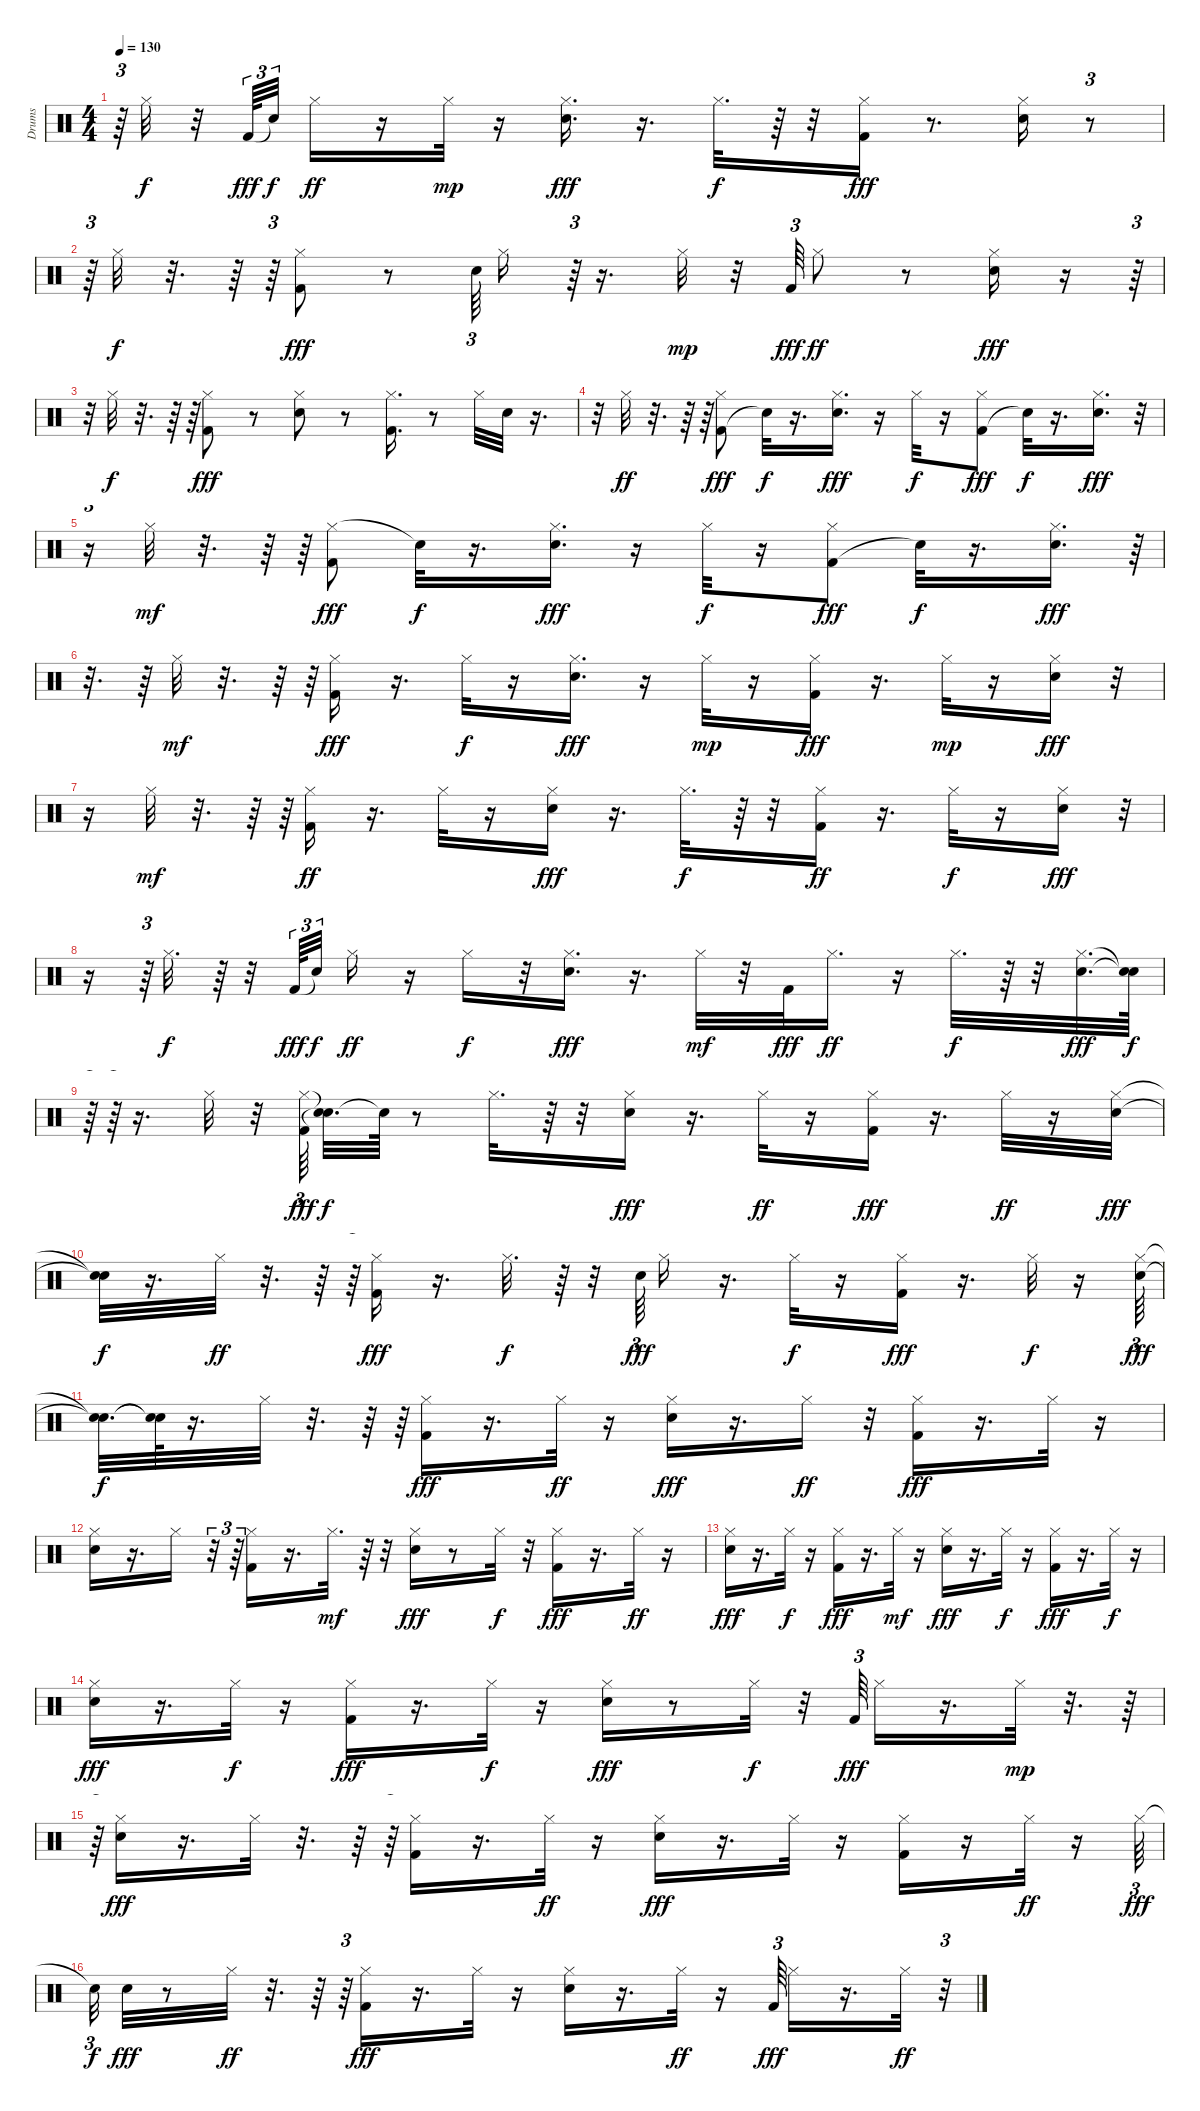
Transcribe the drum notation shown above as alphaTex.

\track ("Drums" "Drums") {instrument percussion}
\staff {score}
\articulation defaults
\ts (4 4)
\tempo 130
\clef neutral
\ks c
r.64{tu (3 2) dy fff} "Hi-Hat (closed)".32{dy f} r.32 "Kick (hit) 2".64{tu (3 2) dy fff} "Snare (hit)"{t}.32{tu (3 2) dy f beam splitsecondary} "Hi-Hat (closed)".16{dy ff} r.16 "Hi-Hat (closed)".32{dy mp} r.16 ("Electric Snare (hit)" "Hi-Hat (closed)").16{d dy fff} r.16{d} "Hi-Hat (closed)".32{d dy f} r.64 r.32 ("Kick (hit) 2" "Hi-Hat (closed)").16{dy fff} r.8{d} ("Hi-Hat (closed)" "Electric Snare (hit)").16 r.8{tu (3 2)} |
r.64{tu (3 2)} "Hi-Hat (closed)".32{dy f} r.32{d} r.64 r.64{tu (3 2)} ("Kick (hit) 2" "Hi-Hat (closed)").8{dy fff} r.8 "Electric Snare (hit)".64{tu (3 2)} "Hi-Hat (closed)".16 r.64{tu (3 2)} r.16{d} "Hi-Hat (closed)".32{dy mp} r.32 "Kick (hit) 2".64{tu (3 2) dy fff} "Hi-Hat (closed)".8{dy ff} r.8 ("Electric Snare (hit)" "Hi-Hat (closed)").16{dy fff} r.16 r.64{tu (3 2)} |
r.32{tu (3 2)} "Hi-Hat (closed)".32{dy f} r.32{d} r.64 r.64{tu (3 2)} ("Kick (hit) 2" "Hi-Hat (closed)").8{dy fff} r.8 ("Electric Snare (hit)" "Hi-Hat (closed)").8 r.8 ("Kick (hit) 2" "Hi-Hat (closed)").16{d} r.8 "Hi-Hat (closed)".32 "Electric Snare (hit)".32 r.16{d} |
r.32 "Hi-Hat (closed)".32{dy ff} r.32{d} r.64 r.64{tu (3 2)} ("Kick (hit) 2" "Hi-Hat (closed)").8{dy fff} "Snare (hit)"{t}.32{dy f} r.16{d} ("Hi-Hat (closed)" "Electric Snare (hit)").16{d dy fff} r.16 "Hi-Hat (closed)".32{dy f} r.16 ("Kick (hit) 2" "Hi-Hat (closed)").8{dy fff} "Snare (hit)"{t}.32{dy f} r.16{d} ("Electric Snare (hit)" "Hi-Hat (closed)").16{d dy fff} r.32{tu (3 2)} |
r.16{tu (3 2)} "Hi-Hat (closed)".32{dy mf} r.32{d} r.64 r.64{tu (3 2)} ("Hi-Hat (closed)" "Kick (hit) 2").8{dy fff} "Snare (hit)"{t}.32{dy f} r.16{d} ("Hi-Hat (closed)" "Electric Snare (hit)").16{d dy fff} r.16 "Hi-Hat (closed)".32{dy f} r.16 ("Kick (hit) 2" "Hi-Hat (closed)").8{dy fff} "Snare (hit)"{t}.32{dy f} r.16{d} ("Electric Snare (hit)" "Hi-Hat (closed)").16{d dy fff} r.64{tu (3 2)} |
r.32{d} r.64 "Hi-Hat (closed)".32{dy mf} r.32{d} r.64 r.64{tu (3 2)} ("Kick (hit) 2" "Hi-Hat (closed)").16{dy fff} r.16{d} "Hi-Hat (closed)".32{dy f} r.16 ("Hi-Hat (closed)" "Electric Snare (hit)").16{d dy fff} r.16 "Hi-Hat (closed)".32{dy mp} r.16 ("Kick (hit) 2" "Hi-Hat (closed)").16{dy fff} r.16{d} "Hi-Hat (closed)".32{dy mp} r.16 ("Electric Snare (hit)" "Hi-Hat (closed)").16{dy fff} r.32 |
r.16 "Hi-Hat (closed)".32{dy mf} r.32{d} r.64 r.64{tu (3 2)} ("Kick (hit) 2" "Hi-Hat (closed)").16{dy ff} r.16{d} "Hi-Hat (closed)".32 r.16 ("Electric Snare (hit)" "Hi-Hat (closed)").16{dy fff} r.16{d} "Hi-Hat (closed)".32{d dy f} r.64 r.32 ("Kick (hit) 2" "Hi-Hat (closed)").16{dy ff} r.16{d} "Hi-Hat (closed)".32{dy f} r.16 ("Electric Snare (hit)" "Hi-Hat (closed)").16{dy fff} r.32{tu (3 2)} |
r.16 r.64{tu (3 2)} "Hi-Hat (closed)".32{d dy f} r.64 r.32 "Kick (hit) 2".64{tu (3 2) dy fff} "Snare (hit)"{t}.32{tu (3 2) dy f beam splitsecondary} "Hi-Hat (closed)".16{dy ff} r.16 "Hi-Hat (closed)".16{dy f} r.32 ("Hi-Hat (closed)" "Electric Snare (hit)").16{d dy fff} r.16{d} "Hi-Hat (closed)".32{dy mf} r.32 "Kick (hit) 2".32{dy fff} "Hi-Hat (closed)".16{d dy ff} r.16 "Hi-Hat (closed)".32{d dy f} r.64 r.32 ("Electric Snare (hit)" "Hi-Hat (closed)").32{d dy fff} ("Snare (hit)"{t} "Snare (hit)"{t}).64{dy f} |
r.64{tu (3 2)} r.64{tu (3 2)} r.16{d} "Hi-Hat (closed)".32 r.32 ("Kick (hit) 2" "Hi-Hat (closed)").64{tu (3 2) dy fff beam splitsecondary} ("Snare (hit)"{t} "Snare (hit)"{t}).32{d dy f} "Snare (hit)"{t}.64 r.8 "Hi-Hat (closed)".32{d} r.64 r.32 ("Electric Snare (hit)" "Hi-Hat (closed)").16{dy fff} r.16{d} "Hi-Hat (closed)".32{dy ff} r.16 ("Kick (hit) 2" "Hi-Hat (closed)").16{dy fff} r.16{d} "Hi-Hat (closed)".32{dy ff} r.16 ("Electric Snare (hit)" "Hi-Hat (closed)").32{dy fff} |
("Snare (hit)"{t} "Snare (hit)"{t}).32{dy f} r.16{d} "Hi-Hat (closed)".32{dy ff} r.32{d} r.64 r.64{tu (3 2)} ("Kick (hit) 2" "Hi-Hat (closed)").16{dy fff} r.16{d} "Hi-Hat (closed)".32{d dy f} r.64 r.32 "Electric Snare (hit)".64{tu (3 2) dy fff} "Hi-Hat (closed)".16 r.16{d} "Hi-Hat (closed)".32{dy f} r.16 ("Kick (hit) 2" "Hi-Hat (closed)").16{dy fff} r.16{d} "Hi-Hat (closed)".32{dy f} r.16 ("Electric Snare (hit)" "Hi-Hat (closed)").64{tu (3 2) dy fff} |
("Snare (hit)"{t} "Snare (hit)"{t}).32{d dy f} ("Snare (hit)"{t} "Snare (hit)"{t}).64 r.16{d} "Hi-Hat (closed)".32 r.32{d} r.64 r.64{tu (3 2)} ("Kick (hit) 2" "Hi-Hat (closed)").16{dy fff} r.16{d} "Hi-Hat (closed)".32{dy ff} r.16 ("Hi-Hat (closed)" "Electric Snare (hit)").16{dy fff} r.16{d} "Hi-Hat (closed)".16{dy ff} r.32 ("Kick (hit) 2" "Hi-Hat (closed)").16{dy fff} r.16{d} "Hi-Hat (closed)".32 r.16 |
("Electric Snare (hit)" "Hi-Hat (closed)").16 r.16{d} "Hi-Hat (closed)".16 r.32{tu (3 2)} r.64{tu (3 2)} ("Kick (hit) 2" "Hi-Hat (closed)").16 r.16{d} "Hi-Hat (closed)".32{d dy mf} r.64 r.32 ("Electric Snare (hit)" "Hi-Hat (closed)").16{dy fff} r.8 "Hi-Hat (closed)".32{dy f} r.32 ("Kick (hit) 2" "Hi-Hat (closed)").16{dy fff} r.16{d} "Hi-Hat (closed)".32{dy ff} r.16 |
("Electric Snare (hit)" "Hi-Hat (closed)").16{dy fff} r.16{d} "Hi-Hat (closed)".32{dy f} r.16 ("Kick (hit) 2" "Hi-Hat (closed)").16{dy fff} r.16{d} "Hi-Hat (closed)".32{dy mf} r.16 ("Electric Snare (hit)" "Hi-Hat (closed)").16{dy fff} r.16{d} "Hi-Hat (closed)".32{dy f} r.16 ("Kick (hit) 2" "Hi-Hat (closed)").16{dy fff} r.16{d} "Hi-Hat (closed)".32{dy f} r.16 |
("Electric Snare (hit)" "Hi-Hat (closed)").16{dy fff} r.16{d} "Hi-Hat (closed)".32{dy f} r.16 ("Kick (hit) 2" "Hi-Hat (closed)").16{dy fff} r.16{d} "Hi-Hat (closed)".32{dy f} r.16 ("Electric Snare (hit)" "Hi-Hat (closed)").16{dy fff} r.8 "Hi-Hat (closed)".32{dy f} r.32 "Kick (hit) 2".64{tu (3 2) dy fff} "Hi-Hat (closed)".16 r.16{d} "Hi-Hat (closed)".32{dy mp} r.32{d} r.64 |
r.64{tu (3 2)} ("Electric Snare (hit)" "Hi-Hat (closed)").16{dy fff} r.16{d} "Hi-Hat (closed)".32 r.32{d} r.64 r.64{tu (3 2)} ("Kick (hit) 2" "Hi-Hat (closed)").16 r.16{d} "Hi-Hat (closed)".32{dy ff} r.16 ("Electric Snare (hit)" "Hi-Hat (closed)").16{dy fff} r.16{d} "Hi-Hat (closed)".32 r.16 ("Kick (hit) 2" "Hi-Hat (closed)").16 r.16 "Hi-Hat (closed)".32{dy ff} r.16 "Hi-Hat (closed)".64{tu (3 2) dy fff} |
"Snare (hit)"{t}.32{tu (3 2) dy f} "Electric Snare (hit)".32{dy fff} r.8 "Hi-Hat (closed)".32{dy ff} r.32{d} r.64 r.64{tu (3 2)} ("Kick (hit) 2" "Hi-Hat (closed)").16{dy fff} r.16{d} "Hi-Hat (closed)".32 r.16 ("Electric Snare (hit)" "Hi-Hat (closed)").16 r.16{d} "Hi-Hat (closed)".32{dy ff} r.16 "Kick (hit) 2".64{tu (3 2) dy fff} "Hi-Hat (closed)".16 r.16{d} "Hi-Hat (closed)".32{dy ff} r.32{tu (3 2)}
